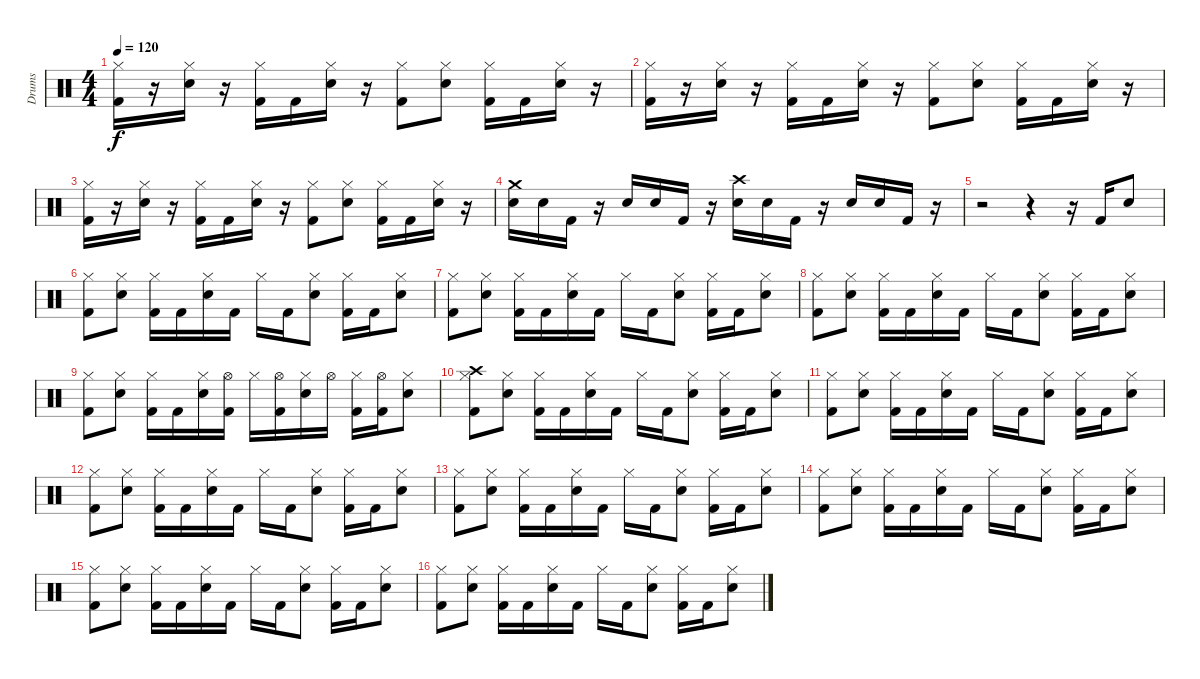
\track ("Drums" "Drums") {instrument percussion}
\staff {score}
\articulation defaults
\ts (4 4)
\tempo 120
\clef neutral
\ks c
("Hi-Hat (closed)" "Kick (hit) 2").16{dy f} r.16 ("Hi-Hat (closed)" "Electric Snare (hit)").16 r.16 ("Hi-Hat (closed)" "Kick (hit) 2").16 "Kick (hit) 2".16 ("Hi-Hat (closed)" "Electric Snare (hit)").16 r.16 ("Hi-Hat (closed)" "Kick (hit) 2").8 ("Hi-Hat (closed)" "Electric Snare (hit)").8 ("Hi-Hat (closed)" "Kick (hit) 2").16 "Kick (hit) 2".16 ("Hi-Hat (closed)" "Electric Snare (hit)").16 r.16 |
("Hi-Hat (closed)" "Kick (hit) 2").16 r.16 ("Hi-Hat (closed)" "Electric Snare (hit)").16 r.16 ("Hi-Hat (closed)" "Kick (hit) 2").16 "Kick (hit) 2".16 ("Hi-Hat (closed)" "Electric Snare (hit)").16 r.16 ("Hi-Hat (closed)" "Kick (hit) 2").8 ("Hi-Hat (closed)" "Electric Snare (hit)").8 ("Hi-Hat (closed)" "Kick (hit) 2").16 "Kick (hit) 2".16 ("Hi-Hat (closed)" "Electric Snare (hit)").16 r.16 |
("Hi-Hat (closed)" "Kick (hit) 2").16 r.16 ("Hi-Hat (closed)" "Electric Snare (hit)").16 r.16 ("Hi-Hat (closed)" "Kick (hit) 2").16 "Kick (hit) 2".16 ("Hi-Hat (closed)" "Electric Snare (hit)").16 r.16 ("Hi-Hat (closed)" "Kick (hit) 2").8 ("Hi-Hat (closed)" "Electric Snare (hit)").8 ("Hi-Hat (closed)" "Kick (hit) 2").16 "Kick (hit) 2".16 ("Hi-Hat (closed)" "Electric Snare (hit)").16 r.16 |
("Crash medium (hit)" "Electric Snare (hit)").16 "Electric Snare (hit)".16 "Kick (hit) 2".16 r.16 "Electric Snare (hit)".16 "Electric Snare (hit)".16 "Kick (hit) 2".16 r.16 ("Crash high (hit)" "Electric Snare (hit)").16 "Electric Snare (hit)".16 "Kick (hit) 2".16 r.16 "Electric Snare (hit)".16 "Electric Snare (hit)".16 "Kick (hit) 2".16 r.16 |
r.2 r.4 r.16 "Kick (hit) 2".16 "Electric Snare (hit)".8 |
("Hi-Hat (closed)" "Kick (hit) 2").8 ("Hi-Hat (closed)" "Electric Snare (hit)").8 ("Hi-Hat (closed)" "Kick (hit) 2").16 "Kick (hit) 2".16 ("Hi-Hat (closed)" "Electric Snare (hit)").16 "Kick (hit) 2".16 "Hi-Hat (closed)".16 "Kick (hit) 2".16 ("Hi-Hat (closed)" "Electric Snare (hit)").8 ("Hi-Hat (closed)" "Kick (hit) 2").16 "Kick (hit) 2".16 ("Hi-Hat (closed)" "Electric Snare (hit)").8 |
("Hi-Hat (closed)" "Kick (hit) 2").8 ("Hi-Hat (closed)" "Electric Snare (hit)").8 ("Hi-Hat (closed)" "Kick (hit) 2").16 "Kick (hit) 2".16 ("Hi-Hat (closed)" "Electric Snare (hit)").16 "Kick (hit) 2".16 "Hi-Hat (closed)".16 "Kick (hit) 2".16 ("Hi-Hat (closed)" "Electric Snare (hit)").8 ("Hi-Hat (closed)" "Kick (hit) 2").16 "Kick (hit) 2".16 ("Hi-Hat (closed)" "Electric Snare (hit)").8 |
("Hi-Hat (closed)" "Kick (hit) 2").8 ("Hi-Hat (closed)" "Electric Snare (hit)").8 ("Hi-Hat (closed)" "Kick (hit) 2").16 "Kick (hit) 2".16 ("Hi-Hat (closed)" "Electric Snare (hit)").16 "Kick (hit) 2".16 "Hi-Hat (closed)".16 "Kick (hit) 2".16 ("Hi-Hat (closed)" "Electric Snare (hit)").8 ("Hi-Hat (closed)" "Kick (hit) 2").16 "Kick (hit) 2".16 ("Hi-Hat (closed)" "Electric Snare (hit)").8 |
("Hi-Hat (closed)" "Kick (hit) 2").8 ("Hi-Hat (closed)" "Electric Snare (hit)").8 ("Hi-Hat (closed)" "Kick (hit) 2").16 "Kick (hit) 2".16 ("Hi-Hat (closed)" "Electric Snare (hit)").16 ("Hi-Hat (open)" "Kick (hit) 2").16 "Hi-Hat (closed)".16 ("Hi-Hat (open)" "Kick (hit) 2").16 ("Hi-Hat (closed)" "Electric Snare (hit)").16 "Hi-Hat (open)".16 ("Hi-Hat (closed)" "Kick (hit) 2").16 ("Hi-Hat (open)" "Kick (hit) 2").16 ("Hi-Hat (closed)" "Electric Snare (hit)").8 |
("Crash high (hit)" "Hi-Hat (closed)" "Kick (hit) 2").8 ("Hi-Hat (closed)" "Electric Snare (hit)").8 ("Hi-Hat (closed)" "Kick (hit) 2").16 "Kick (hit) 2".16 ("Hi-Hat (closed)" "Electric Snare (hit)").16 "Kick (hit) 2".16 "Hi-Hat (closed)".16 "Kick (hit) 2".16 ("Hi-Hat (closed)" "Electric Snare (hit)").8 ("Hi-Hat (closed)" "Kick (hit) 2").16 "Kick (hit) 2".16 ("Hi-Hat (closed)" "Electric Snare (hit)").8 |
("Hi-Hat (closed)" "Kick (hit) 2").8 ("Hi-Hat (closed)" "Electric Snare (hit)").8 ("Hi-Hat (closed)" "Kick (hit) 2").16 "Kick (hit) 2".16 ("Hi-Hat (closed)" "Electric Snare (hit)").16 "Kick (hit) 2".16 "Hi-Hat (closed)".16 "Kick (hit) 2".16 ("Hi-Hat (closed)" "Electric Snare (hit)").8 ("Hi-Hat (closed)" "Kick (hit) 2").16 "Kick (hit) 2".16 ("Hi-Hat (closed)" "Electric Snare (hit)").8 |
("Hi-Hat (closed)" "Kick (hit) 2").8 ("Hi-Hat (closed)" "Electric Snare (hit)").8 ("Hi-Hat (closed)" "Kick (hit) 2").16 "Kick (hit) 2".16 ("Hi-Hat (closed)" "Electric Snare (hit)").16 "Kick (hit) 2".16 "Hi-Hat (closed)".16 "Kick (hit) 2".16 ("Hi-Hat (closed)" "Electric Snare (hit)").8 ("Hi-Hat (closed)" "Kick (hit) 2").16 "Kick (hit) 2".16 ("Hi-Hat (closed)" "Electric Snare (hit)").8 |
("Hi-Hat (closed)" "Kick (hit) 2").8 ("Hi-Hat (closed)" "Electric Snare (hit)").8 ("Hi-Hat (closed)" "Kick (hit) 2").16 "Kick (hit) 2".16 ("Hi-Hat (closed)" "Electric Snare (hit)").16 "Kick (hit) 2".16 "Hi-Hat (closed)".16 "Kick (hit) 2".16 ("Hi-Hat (closed)" "Electric Snare (hit)").8 ("Hi-Hat (closed)" "Kick (hit) 2").16 "Kick (hit) 2".16 ("Hi-Hat (closed)" "Electric Snare (hit)").8 |
("Hi-Hat (closed)" "Kick (hit) 2").8 ("Hi-Hat (closed)" "Electric Snare (hit)").8 ("Hi-Hat (closed)" "Kick (hit) 2").16 "Kick (hit) 2".16 ("Hi-Hat (closed)" "Electric Snare (hit)").16 "Kick (hit) 2".16 "Hi-Hat (closed)".16 "Kick (hit) 2".16 ("Hi-Hat (closed)" "Electric Snare (hit)").8 ("Hi-Hat (closed)" "Kick (hit) 2").16 "Kick (hit) 2".16 ("Hi-Hat (closed)" "Electric Snare (hit)").8 |
("Hi-Hat (closed)" "Kick (hit) 2").8 ("Hi-Hat (closed)" "Electric Snare (hit)").8 ("Hi-Hat (closed)" "Kick (hit) 2").16 "Kick (hit) 2".16 ("Hi-Hat (closed)" "Electric Snare (hit)").16 "Kick (hit) 2".16 "Hi-Hat (closed)".16 "Kick (hit) 2".16 ("Hi-Hat (closed)" "Electric Snare (hit)").8 ("Hi-Hat (closed)" "Kick (hit) 2").16 "Kick (hit) 2".16 ("Hi-Hat (closed)" "Electric Snare (hit)").8 |
("Hi-Hat (closed)" "Kick (hit) 2").8 ("Hi-Hat (closed)" "Electric Snare (hit)").8 ("Hi-Hat (closed)" "Kick (hit) 2").16 "Kick (hit) 2".16 ("Hi-Hat (closed)" "Electric Snare (hit)").16 "Kick (hit) 2".16 "Hi-Hat (closed)".16 "Kick (hit) 2".16 ("Hi-Hat (closed)" "Electric Snare (hit)").8 ("Hi-Hat (closed)" "Kick (hit) 2").16 "Kick (hit) 2".16 ("Hi-Hat (closed)" "Electric Snare (hit)").8
